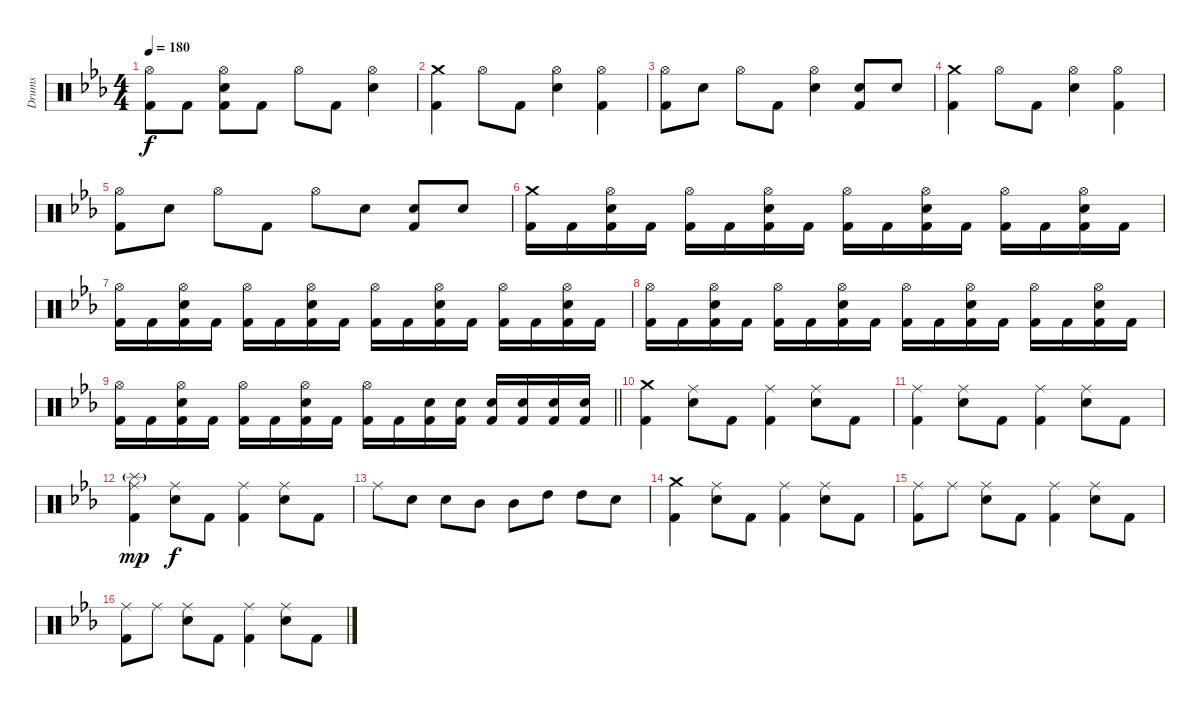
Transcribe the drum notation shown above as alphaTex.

\track ("Drums" "Drums") {instrument percussion}
\staff {score}
\articulation defaults
\ts (4 4)
\tempo 180
\clef neutral
\ks eb
("Hi-Hat (open)" "Kick (hit) 2").8{dy f} "Kick (hit) 2".8 ("Hi-Hat (open)" "Snare (hit) 2" "Kick (hit) 2").8 "Kick (hit) 2".8 "Hi-Hat (open)".8 "Kick (hit) 2".8 ("Hi-Hat (open)" "Snare (hit) 2").4 |
("Crash medium (hit)" "Kick (hit) 2").4 "Hi-Hat (open)".8 "Kick (hit) 2".8 ("Hi-Hat (open)" "Snare (hit) 2").4 ("Hi-Hat (open)" "Kick (hit) 2").4 |
("Hi-Hat (open)" "Kick (hit) 2").8 "Snare (hit) 2".8 "Hi-Hat (open)".8 "Kick (hit) 2".8 ("Hi-Hat (open)" "Snare (hit) 2").4 ("Snare (hit) 2" "Kick (hit) 2").8 "Snare (hit) 2".8 |
("Crash medium (hit)" "Kick (hit) 2").4 "Hi-Hat (open)".8 "Kick (hit) 2".8 ("Hi-Hat (open)" "Snare (hit) 2").4 ("Hi-Hat (open)" "Kick (hit) 2").4 |
("Hi-Hat (open)" "Kick (hit) 2").8 "Snare (hit) 2".8 "Hi-Hat (open)".8 "Kick (hit) 2".8 "Hi-Hat (open)".8 "Snare (hit) 2".8 ("Snare (hit) 2" "Kick (hit) 2").8 "Snare (hit) 2".8 |
("Crash medium (hit)" "Kick (hit) 2").16 "Kick (hit) 2".16 ("Hi-Hat (open)" "Snare (hit) 2" "Kick (hit) 2").16 "Kick (hit) 2".16 ("Hi-Hat (open)" "Kick (hit) 2").16 "Kick (hit) 2".16 ("Hi-Hat (open)" "Snare (hit) 2" "Kick (hit) 2").16 "Kick (hit) 2".16 ("Hi-Hat (open)" "Kick (hit) 2").16 "Kick (hit) 2".16 ("Hi-Hat (open)" "Snare (hit) 2" "Kick (hit) 2").16 "Kick (hit) 2".16 ("Hi-Hat (open)" "Kick (hit) 2").16 "Kick (hit) 2".16 ("Hi-Hat (open)" "Snare (hit) 2" "Kick (hit) 2").16 "Kick (hit) 2".16 |
("Hi-Hat (open)" "Kick (hit) 2").16 "Kick (hit) 2".16 ("Hi-Hat (open)" "Snare (hit) 2" "Kick (hit) 2").16 "Kick (hit) 2".16 ("Hi-Hat (open)" "Kick (hit) 2").16 "Kick (hit) 2".16 ("Hi-Hat (open)" "Snare (hit) 2" "Kick (hit) 2").16 "Kick (hit) 2".16 ("Hi-Hat (open)" "Kick (hit) 2").16 "Kick (hit) 2".16 ("Hi-Hat (open)" "Snare (hit) 2" "Kick (hit) 2").16 "Kick (hit) 2".16 ("Hi-Hat (open)" "Kick (hit) 2").16 "Kick (hit) 2".16 ("Hi-Hat (open)" "Snare (hit) 2" "Kick (hit) 2").16 "Kick (hit) 2".16 |
("Hi-Hat (open)" "Kick (hit) 2").16 "Kick (hit) 2".16 ("Hi-Hat (open)" "Snare (hit) 2" "Kick (hit) 2").16 "Kick (hit) 2".16 ("Hi-Hat (open)" "Kick (hit) 2").16 "Kick (hit) 2".16 ("Hi-Hat (open)" "Snare (hit) 2" "Kick (hit) 2").16 "Kick (hit) 2".16 ("Hi-Hat (open)" "Kick (hit) 2").16 "Kick (hit) 2".16 ("Hi-Hat (open)" "Snare (hit) 2" "Kick (hit) 2").16 "Kick (hit) 2".16 ("Hi-Hat (open)" "Kick (hit) 2").16 "Kick (hit) 2".16 ("Hi-Hat (open)" "Snare (hit) 2" "Kick (hit) 2").16 "Kick (hit) 2".16 |
\barLineRight lightlight
("Hi-Hat (open)" "Kick (hit) 2").16 "Kick (hit) 2".16 ("Hi-Hat (open)" "Snare (hit) 2" "Kick (hit) 2").16 "Kick (hit) 2".16 ("Hi-Hat (open)" "Kick (hit) 2").16 "Kick (hit) 2".16 ("Hi-Hat (open)" "Snare (hit) 2" "Kick (hit) 2").16 "Kick (hit) 2".16 ("Hi-Hat (open)" "Kick (hit) 2").16 "Kick (hit) 2".16 ("Snare (hit) 2" "Kick (hit) 2").16 ("Snare (hit) 2" "Kick (hit) 2").16 ("Snare (hit) 2" "Kick (hit) 2").16 ("Snare (hit) 2" "Kick (hit) 2").16 ("Snare (hit) 2" "Kick (hit) 2").16 ("Snare (hit) 2" "Kick (hit) 2").16 |
\section ("" "")
("Crash medium (hit)" "Kick (hit) 2").4 ("Ride (middle)" "Snare (hit) 2").8 "Kick (hit) 2".8 ("Ride (middle)" "Kick (hit) 2").4 ("Ride (middle)" "Snare (hit) 2").8 "Kick (hit) 2".8 |
("Ride (middle)" "Kick (hit) 2").4 ("Ride (middle)" "Snare (hit) 2").8 "Kick (hit) 2".8 ("Ride (middle)" "Kick (hit) 2").4 ("Ride (middle)" "Snare (hit) 2").8 "Kick (hit) 2".8 |
("Splash (hit)"{g} "Ride (middle)" "Kick (hit) 2").4{dy mp} ("Ride (middle)" "Snare (hit) 2").8{dy f} "Kick (hit) 2".8 ("Ride (middle)" "Kick (hit) 2").4 ("Ride (middle)" "Snare (hit) 2").8 "Kick (hit) 2".8 |
"Ride (middle)".8 "Snare (hit) 2".8 "Snare (hit) 2".8 "Mid Tom (hit)".8 "Mid Tom (hit)".8 "High Tom (hit)".8 "High Tom (hit)".8 "Snare (hit) 2".8 |
("Crash medium (hit)" "Kick (hit) 2").4 ("Ride (middle)" "Snare (hit) 2").8 "Kick (hit) 2".8 ("Ride (middle)" "Kick (hit) 2").4 ("Ride (middle)" "Snare (hit) 2").8 "Kick (hit) 2".8 |
("Ride (middle)" "Kick (hit) 2").8 "Ride (middle)".8 ("Ride (middle)" "Snare (hit) 2").8 "Kick (hit) 2".8 ("Ride (middle)" "Kick (hit) 2").4 ("Ride (middle)" "Snare (hit) 2").8 "Kick (hit) 2".8 |
("Ride (middle)" "Kick (hit) 2").8 "Ride (middle)".8 ("Ride (middle)" "Snare (hit) 2").8 "Kick (hit) 2".8 ("Ride (middle)" "Kick (hit) 2").4 ("Ride (middle)" "Snare (hit) 2").8 "Kick (hit) 2".8
